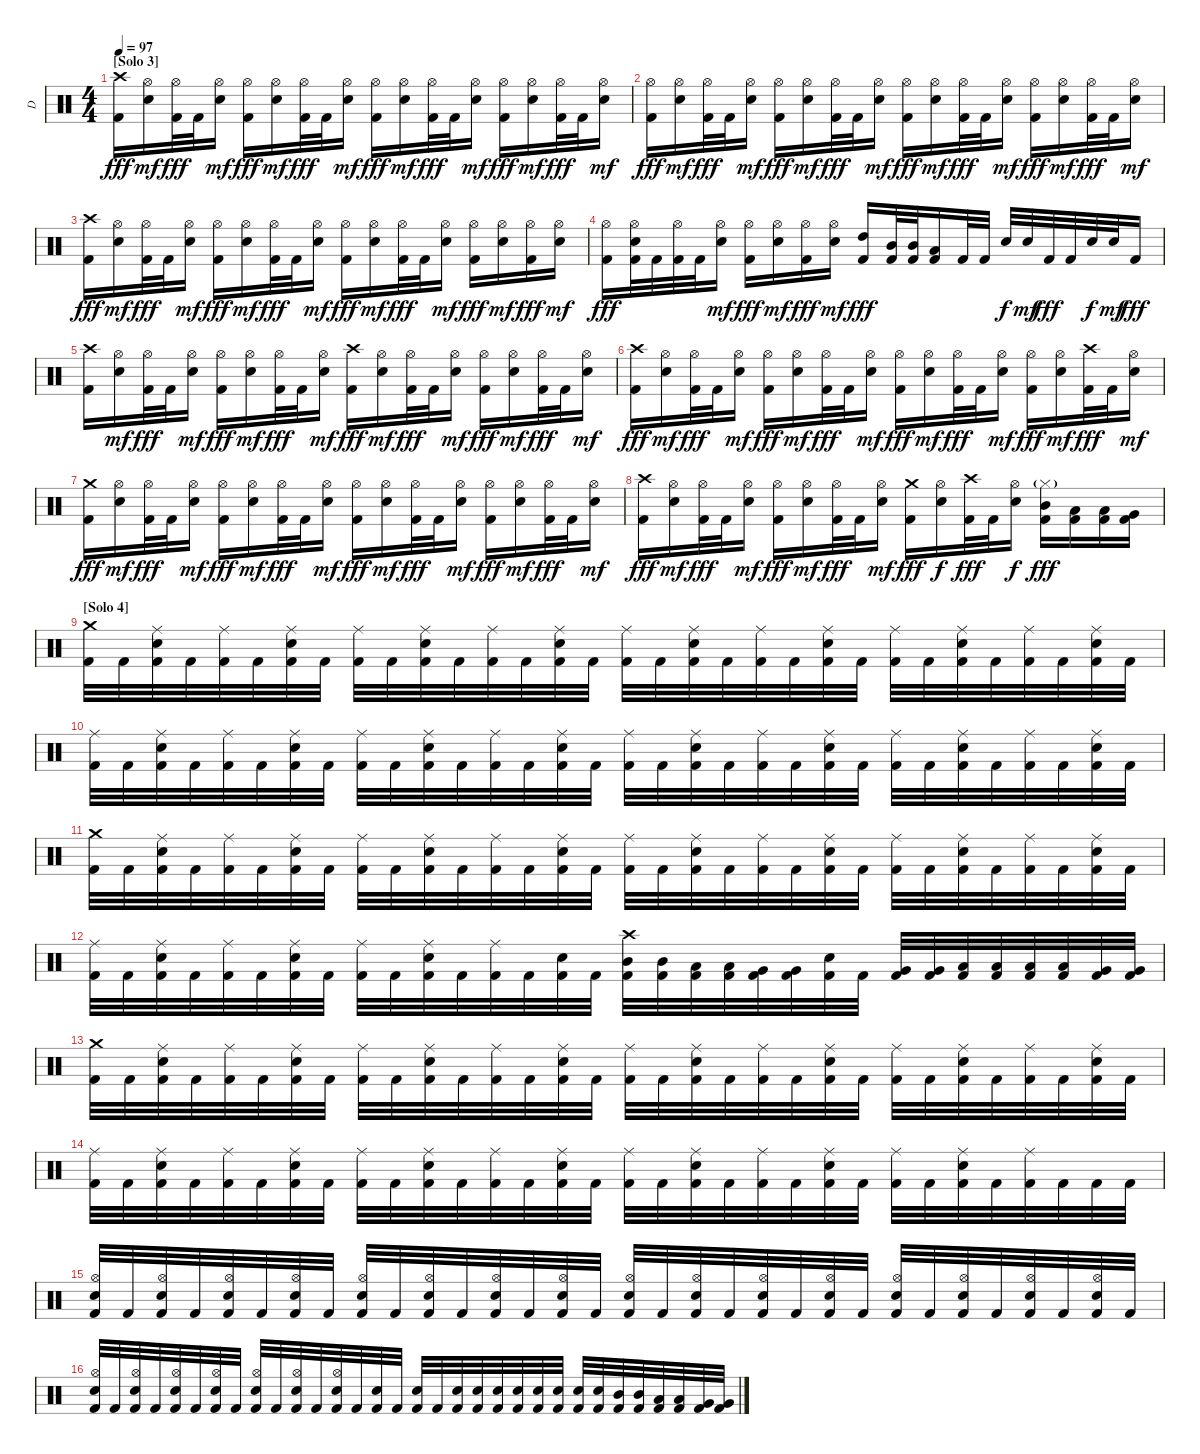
\track ("D" "D") {instrument percussion}
\staff {score}
\articulation defaults
\ts (4 4)
\section ("" "[Solo 3]")
\tempo 97
\clef neutral
\ks c
("Crash high (hit)" "Kick (hit) 2").16{dy fff} ("Hi-Hat (open)" "Snare (hit) 2").16{dy mf} ("Hi-Hat (open)" "Kick (hit) 2").32{dy fff} "Kick (hit) 2".32 ("Hi-Hat (open)" "Snare (hit) 2").16{dy mf} ("Hi-Hat (open)" "Kick (hit) 2").16{dy fff} ("Hi-Hat (open)" "Snare (hit) 2").16{dy mf} ("Hi-Hat (open)" "Kick (hit) 2").32{dy fff} "Kick (hit) 2".32 ("Hi-Hat (open)" "Snare (hit) 2").16{dy mf} ("Hi-Hat (open)" "Kick (hit) 2").16{dy fff} ("Hi-Hat (open)" "Snare (hit) 2").16{dy mf} ("Hi-Hat (open)" "Kick (hit) 2").32{dy fff} "Kick (hit) 2".32 ("Hi-Hat (open)" "Snare (hit) 2").16{dy mf} ("Hi-Hat (open)" "Kick (hit) 2").16{dy fff} ("Hi-Hat (open)" "Snare (hit) 2").16{dy mf} ("Hi-Hat (open)" "Kick (hit) 2").32{dy fff} "Kick (hit) 2".32 ("Hi-Hat (open)" "Snare (hit) 2").16{dy mf} |
("Hi-Hat (open)" "Kick (hit) 2").16{dy fff} ("Hi-Hat (open)" "Snare (hit) 2").16{dy mf} ("Hi-Hat (open)" "Kick (hit) 2").32{dy fff} "Kick (hit) 2".32 ("Hi-Hat (open)" "Snare (hit) 2").16{dy mf} ("Hi-Hat (open)" "Kick (hit) 2").16{dy fff} ("Hi-Hat (open)" "Snare (hit) 2").16{dy mf} ("Hi-Hat (open)" "Kick (hit) 2").32{dy fff} "Kick (hit) 2".32 ("Hi-Hat (open)" "Snare (hit) 2").16{dy mf} ("Hi-Hat (open)" "Kick (hit) 2").16{dy fff} ("Hi-Hat (open)" "Snare (hit) 2").16{dy mf} ("Hi-Hat (open)" "Kick (hit) 2").32{dy fff} "Kick (hit) 2".32 ("Hi-Hat (open)" "Snare (hit) 2").16{dy mf} ("Hi-Hat (open)" "Kick (hit) 2").16{dy fff} ("Hi-Hat (open)" "Snare (hit) 2").16{dy mf} ("Hi-Hat (open)" "Kick (hit) 2").32{dy fff} "Kick (hit) 2".32 ("Hi-Hat (open)" "Snare (hit) 2").16{dy mf} |
("Crash high (hit)" "Kick (hit) 2").16{dy fff} ("Hi-Hat (open)" "Snare (hit) 2").16{dy mf} ("Hi-Hat (open)" "Kick (hit) 2").32{dy fff} "Kick (hit) 2".32 ("Hi-Hat (open)" "Snare (hit) 2").16{dy mf} ("Hi-Hat (open)" "Kick (hit) 2").16{dy fff} ("Hi-Hat (open)" "Snare (hit) 2").16{dy mf} ("Hi-Hat (open)" "Kick (hit) 2").32{dy fff} "Kick (hit) 2".32 ("Hi-Hat (open)" "Snare (hit) 2").16{dy mf} ("Hi-Hat (open)" "Kick (hit) 2").16{dy fff} ("Hi-Hat (open)" "Snare (hit) 2").16{dy mf} ("Hi-Hat (open)" "Kick (hit) 2").32{dy fff} "Kick (hit) 2".32 ("Hi-Hat (open)" "Snare (hit) 2").16{dy mf} ("Hi-Hat (open)" "Kick (hit) 2").16{dy fff} ("Hi-Hat (open)" "Snare (hit) 2").16{dy mf} ("Hi-Hat (open)" "Kick (hit) 2").16{dy fff} ("Hi-Hat (open)" "Snare (hit) 2").16{dy mf} |
("Hi-Hat (open)" "Kick (hit) 2").16{dy fff} ("Hi-Hat (open)" "Snare (hit) 2" "Kick (hit) 2").32 "Kick (hit) 2".32 ("Hi-Hat (open)" "Kick (hit) 2").32 "Kick (hit) 2".32 ("Hi-Hat (open)" "Snare (hit) 2").16{dy mf} ("Hi-Hat (open)" "Kick (hit) 2").16{dy fff} ("Hi-Hat (open)" "Snare (hit) 2").16{dy mf} ("Hi-Hat (open)" "Kick (hit) 2").16{dy fff} ("Hi-Hat (open)" "Snare (hit) 2").16{dy mf} ("High Tom (hit)" "Kick (hit) 2").16{dy fff} ("Mid Tom (hit)" "Kick (hit) 2").32 ("Mid Tom (hit)" "Kick (hit) 2").32 ("Low Tom (hit)" "Kick (hit) 2").16 "Kick (hit) 2".32 "Kick (hit) 2".32 "Snare (hit) 2".32{dy f} "Snare (hit) 2".32{dy mf} "Kick (hit) 2".32{dy fff} "Kick (hit) 2".32 "Snare (hit) 2".32{dy f} "Snare (hit) 2".32{dy mf} "Kick (hit) 2".16{dy fff} |
("Crash high (hit)" "Kick (hit) 2").16 ("Hi-Hat (open)" "Snare (hit) 2").16{dy mf} ("Hi-Hat (open)" "Kick (hit) 2").32{dy fff} "Kick (hit) 2".32 ("Hi-Hat (open)" "Snare (hit) 2").16{dy mf} ("Hi-Hat (open)" "Kick (hit) 2").16{dy fff} ("Hi-Hat (open)" "Snare (hit) 2").16{dy mf} ("Hi-Hat (open)" "Kick (hit) 2").32{dy fff} "Kick (hit) 2".32 ("Hi-Hat (open)" "Snare (hit) 2").16{dy mf} ("Crash high (hit)" "Kick (hit) 2").16{dy fff} ("Hi-Hat (open)" "Snare (hit) 2").16{dy mf} ("Hi-Hat (open)" "Kick (hit) 2").32{dy fff} "Kick (hit) 2".32 ("Hi-Hat (open)" "Snare (hit) 2").16{dy mf} ("Hi-Hat (open)" "Kick (hit) 2").16{dy fff} ("Hi-Hat (open)" "Snare (hit) 2").16{dy mf} ("Hi-Hat (open)" "Kick (hit) 2").32{dy fff} "Kick (hit) 2".32 ("Hi-Hat (open)" "Snare (hit) 2").16{dy mf} |
("Crash high (hit)" "Kick (hit) 2").16{dy fff} ("Hi-Hat (open)" "Snare (hit) 2").16{dy mf} ("Hi-Hat (open)" "Kick (hit) 2").32{dy fff} "Kick (hit) 2".32 ("Hi-Hat (open)" "Snare (hit) 2").16{dy mf} ("Hi-Hat (open)" "Kick (hit) 2").16{dy fff} ("Hi-Hat (open)" "Snare (hit) 2").16{dy mf} ("Hi-Hat (open)" "Kick (hit) 2").32{dy fff} "Kick (hit) 2".32 ("Hi-Hat (open)" "Snare (hit) 2").16{dy mf} ("Hi-Hat (open)" "Kick (hit) 2").16{dy fff} ("Hi-Hat (open)" "Snare (hit) 2").16{dy mf} ("Hi-Hat (open)" "Kick (hit) 2").32{dy fff} "Kick (hit) 2".32 ("Hi-Hat (open)" "Snare (hit) 2").16{dy mf} ("Hi-Hat (open)" "Kick (hit) 2").16{dy fff} ("Hi-Hat (open)" "Snare (hit) 2").16{dy mf} ("Crash high (hit)" "Kick (hit) 2").32{dy fff} "Kick (hit) 2".32 ("Hi-Hat (open)" "Snare (hit) 2").16{dy mf} |
("Crash medium (hit)" "Kick (hit) 2").16{dy fff} ("Hi-Hat (open)" "Snare (hit) 2").16{dy mf} ("Hi-Hat (open)" "Kick (hit) 2").32{dy fff} "Kick (hit) 2".32 ("Hi-Hat (open)" "Snare (hit) 2").16{dy mf} ("Hi-Hat (open)" "Kick (hit) 2").16{dy fff} ("Hi-Hat (open)" "Snare (hit) 2").16{dy mf} ("Hi-Hat (open)" "Kick (hit) 2").32{dy fff} "Kick (hit) 2".32 ("Hi-Hat (open)" "Snare (hit) 2").16{dy mf} ("Hi-Hat (open)" "Kick (hit) 2").16{dy fff} ("Hi-Hat (open)" "Snare (hit) 2").16{dy mf} ("Hi-Hat (open)" "Kick (hit) 2").32{dy fff} "Kick (hit) 2".32 ("Hi-Hat (open)" "Snare (hit) 2").16{dy mf} ("Hi-Hat (open)" "Kick (hit) 2").16{dy fff} ("Hi-Hat (open)" "Snare (hit) 2").16{dy mf} ("Hi-Hat (open)" "Kick (hit) 2").32{dy fff} "Kick (hit) 2".32 ("Hi-Hat (open)" "Snare (hit) 2").16{dy mf} |
("Crash high (hit)" "Kick (hit) 2").16{dy fff} ("Hi-Hat (open)" "Snare (hit) 2").16{dy mf} ("Hi-Hat (open)" "Kick (hit) 2").32{dy fff} "Kick (hit) 2".32 ("Hi-Hat (open)" "Snare (hit) 2").16{dy mf} ("Hi-Hat (open)" "Kick (hit) 2").16{dy fff} ("Hi-Hat (open)" "Snare (hit) 2").16{dy mf} ("Hi-Hat (open)" "Kick (hit) 2").32{dy fff} "Kick (hit) 2".32 ("Hi-Hat (open)" "Snare (hit) 2").16{dy mf} ("Crash medium (hit)" "Kick (hit) 2").16{dy fff} ("Hi-Hat (open)" "Snare (hit) 2").16{dy f} ("Crash high (hit)" "Kick (hit) 2").32{dy fff} "Kick (hit) 2".32 ("Hi-Hat (open)" "Snare (hit) 2").16{dy f} ("Hi-Hat (closed)"{g} "Mid Tom (hit)" "Kick (hit) 2").16{dy fff} ("Low Tom (hit)" "Kick (hit) 2").16 ("Low Tom (hit)" "Kick (hit) 2").16 ("Very Low Tom (hit)" "Kick (hit) 2").16 |
\section ("" "[Solo 4]")
("Crash medium (hit)" "Kick (hit) 2").32 "Kick (hit) 2".32 ("Ride (middle)" "Snare (hit) 2" "Kick (hit) 2").32 "Kick (hit) 2".32 ("Ride (middle)" "Kick (hit) 2").32 "Kick (hit) 2".32 ("Ride (middle)" "Snare (hit) 2" "Kick (hit) 2").32 "Kick (hit) 2".32 ("Ride (middle)" "Kick (hit) 2").32 "Kick (hit) 2".32 ("Ride (middle)" "Snare (hit) 2" "Kick (hit) 2").32 "Kick (hit) 2".32 ("Ride (middle)" "Kick (hit) 2").32 "Kick (hit) 2".32 ("Ride (middle)" "Snare (hit) 2" "Kick (hit) 2").32 "Kick (hit) 2".32 ("Ride (middle)" "Kick (hit) 2").32 "Kick (hit) 2".32 ("Ride (middle)" "Snare (hit) 2" "Kick (hit) 2").32 "Kick (hit) 2".32 ("Ride (middle)" "Kick (hit) 2").32 "Kick (hit) 2".32 ("Ride (middle)" "Snare (hit) 2" "Kick (hit) 2").32 "Kick (hit) 2".32 ("Ride (middle)" "Kick (hit) 2").32 "Kick (hit) 2".32 ("Ride (middle)" "Snare (hit) 2" "Kick (hit) 2").32 "Kick (hit) 2".32 ("Ride (middle)" "Kick (hit) 2").32 "Kick (hit) 2".32 ("Ride (middle)" "Snare (hit) 2" "Kick (hit) 2").32 "Kick (hit) 2".32 |
("Ride (middle)" "Kick (hit) 2").32 "Kick (hit) 2".32 ("Ride (middle)" "Snare (hit) 2" "Kick (hit) 2").32 "Kick (hit) 2".32 ("Ride (middle)" "Kick (hit) 2").32 "Kick (hit) 2".32 ("Ride (middle)" "Snare (hit) 2" "Kick (hit) 2").32 "Kick (hit) 2".32 ("Ride (middle)" "Kick (hit) 2").32 "Kick (hit) 2".32 ("Ride (middle)" "Snare (hit) 2" "Kick (hit) 2").32 "Kick (hit) 2".32 ("Ride (middle)" "Kick (hit) 2").32 "Kick (hit) 2".32 ("Ride (middle)" "Snare (hit) 2" "Kick (hit) 2").32 "Kick (hit) 2".32 ("Ride (middle)" "Kick (hit) 2").32 "Kick (hit) 2".32 ("Ride (middle)" "Snare (hit) 2" "Kick (hit) 2").32 "Kick (hit) 2".32 ("Ride (middle)" "Kick (hit) 2").32 "Kick (hit) 2".32 ("Ride (middle)" "Snare (hit) 2" "Kick (hit) 2").32 "Kick (hit) 2".32 ("Ride (middle)" "Kick (hit) 2").32 "Kick (hit) 2".32 ("Ride (middle)" "Snare (hit) 2" "Kick (hit) 2").32 "Kick (hit) 2".32 ("Ride (middle)" "Kick (hit) 2").32 "Kick (hit) 2".32 ("Ride (middle)" "Snare (hit) 2" "Kick (hit) 2").32 "Kick (hit) 2".32 |
("Crash medium (hit)" "Kick (hit) 2").32 "Kick (hit) 2".32 ("Ride (middle)" "Snare (hit) 2" "Kick (hit) 2").32 "Kick (hit) 2".32 ("Ride (middle)" "Kick (hit) 2").32 "Kick (hit) 2".32 ("Ride (middle)" "Snare (hit) 2" "Kick (hit) 2").32 "Kick (hit) 2".32 ("Ride (middle)" "Kick (hit) 2").32 "Kick (hit) 2".32 ("Ride (middle)" "Snare (hit) 2" "Kick (hit) 2").32 "Kick (hit) 2".32 ("Ride (middle)" "Kick (hit) 2").32 "Kick (hit) 2".32 ("Ride (middle)" "Snare (hit) 2" "Kick (hit) 2").32 "Kick (hit) 2".32 ("Ride (middle)" "Kick (hit) 2").32 "Kick (hit) 2".32 ("Ride (middle)" "Snare (hit) 2" "Kick (hit) 2").32 "Kick (hit) 2".32 ("Ride (middle)" "Kick (hit) 2").32 "Kick (hit) 2".32 ("Ride (middle)" "Snare (hit) 2" "Kick (hit) 2").32 "Kick (hit) 2".32 ("Ride (middle)" "Kick (hit) 2").32 "Kick (hit) 2".32 ("Ride (middle)" "Snare (hit) 2" "Kick (hit) 2").32 "Kick (hit) 2".32 ("Ride (middle)" "Kick (hit) 2").32 "Kick (hit) 2".32 ("Ride (middle)" "Snare (hit) 2" "Kick (hit) 2").32 "Kick (hit) 2".32 |
("Ride (middle)" "Kick (hit) 2").32 "Kick (hit) 2".32 ("Ride (middle)" "Snare (hit) 2" "Kick (hit) 2").32 "Kick (hit) 2".32 ("Ride (middle)" "Kick (hit) 2").32 "Kick (hit) 2".32 ("Ride (middle)" "Snare (hit) 2" "Kick (hit) 2").32 "Kick (hit) 2".32 ("Ride (middle)" "Kick (hit) 2").32 "Kick (hit) 2".32 ("Ride (middle)" "Snare (hit) 2" "Kick (hit) 2").32 "Kick (hit) 2".32 ("Ride (middle)" "Kick (hit) 2").32 "Kick (hit) 2".32 ("Snare (hit) 2" "Kick (hit) 2").32 "Kick (hit) 2".32 ("Crash high (hit)" "Mid Tom (hit)" "Kick (hit) 2").32 ("Mid Tom (hit)" "Kick (hit) 2").32 ("Low Tom (hit)" "Kick (hit) 2").32 ("Low Tom (hit)" "Kick (hit) 2").32 ("Very Low Tom (hit)" "Kick (hit) 2").32 ("Very Low Tom (hit)" "Kick (hit) 2").32 ("Snare (hit) 2" "Kick (hit) 2").32 "Kick (hit) 2".32 ("Very Low Tom (hit)" "Kick (hit) 2").32 ("Very Low Tom (hit)" "Kick (hit) 2").32 ("Low Floor Tom (hit)" "Kick (hit) 2").32 ("Low Floor Tom (hit)" "Kick (hit) 2").32 ("Low Tom (hit)" "Kick (hit) 2").32 ("Low Tom (hit)" "Kick (hit) 2").32 ("Very Low Tom (hit)" "Kick (hit) 2").32 ("Very Low Tom (hit)" "Kick (hit) 2").32 |
("Crash medium (hit)" "Kick (hit) 2").32 "Kick (hit) 2".32 ("Ride (middle)" "Snare (hit) 2" "Kick (hit) 2").32 "Kick (hit) 2".32 ("Ride (middle)" "Kick (hit) 2").32 "Kick (hit) 2".32 ("Ride (middle)" "Snare (hit) 2" "Kick (hit) 2").32 "Kick (hit) 2".32 ("Ride (middle)" "Kick (hit) 2").32 "Kick (hit) 2".32 ("Ride (middle)" "Snare (hit) 2" "Kick (hit) 2").32 "Kick (hit) 2".32 ("Ride (middle)" "Kick (hit) 2").32 "Kick (hit) 2".32 ("Ride (middle)" "Snare (hit) 2" "Kick (hit) 2").32 "Kick (hit) 2".32 ("Ride (middle)" "Kick (hit) 2").32 "Kick (hit) 2".32 ("Ride (middle)" "Snare (hit) 2" "Kick (hit) 2").32 "Kick (hit) 2".32 ("Ride (middle)" "Kick (hit) 2").32 "Kick (hit) 2".32 ("Ride (middle)" "Snare (hit) 2" "Kick (hit) 2").32 "Kick (hit) 2".32 ("Ride (middle)" "Kick (hit) 2").32 "Kick (hit) 2".32 ("Ride (middle)" "Snare (hit) 2" "Kick (hit) 2").32 "Kick (hit) 2".32 ("Ride (middle)" "Kick (hit) 2").32 "Kick (hit) 2".32 ("Ride (middle)" "Snare (hit) 2" "Kick (hit) 2").32 "Kick (hit) 2".32 |
("Ride (middle)" "Kick (hit) 2").32 "Kick (hit) 2".32 ("Ride (middle)" "Snare (hit) 2" "Kick (hit) 2").32 "Kick (hit) 2".32 ("Ride (middle)" "Kick (hit) 2").32 "Kick (hit) 2".32 ("Ride (middle)" "Snare (hit) 2" "Kick (hit) 2").32 "Kick (hit) 2".32 ("Ride (middle)" "Kick (hit) 2").32 "Kick (hit) 2".32 ("Ride (middle)" "Snare (hit) 2" "Kick (hit) 2").32 "Kick (hit) 2".32 ("Ride (middle)" "Kick (hit) 2").32 "Kick (hit) 2".32 ("Ride (middle)" "Snare (hit) 2" "Kick (hit) 2").32 "Kick (hit) 2".32 ("Ride (middle)" "Kick (hit) 2").32 "Kick (hit) 2".32 ("Ride (middle)" "Snare (hit) 2" "Kick (hit) 2").32 "Kick (hit) 2".32 ("Ride (middle)" "Kick (hit) 2").32 "Kick (hit) 2".32 ("Ride (middle)" "Snare (hit) 2" "Kick (hit) 2").32 "Kick (hit) 2".32 ("Ride (middle)" "Kick (hit) 2").32 "Kick (hit) 2".32 ("Ride (middle)" "Snare (hit) 2" "Kick (hit) 2").32 "Kick (hit) 2".32 ("Ride (middle)" "Kick (hit) 2").32 "Kick (hit) 2".32 "Kick (hit) 2".32 "Kick (hit) 2".32 |
("Hi-Hat (open)" "Snare (hit) 2" "Kick (hit) 2").32 "Kick (hit) 2".32 ("Hi-Hat (open)" "Snare (hit) 2" "Kick (hit) 2").32 "Kick (hit) 2".32 ("Hi-Hat (open)" "Snare (hit) 2" "Kick (hit) 2").32 "Kick (hit) 2".32 ("Hi-Hat (open)" "Snare (hit) 2" "Kick (hit) 2").32 "Kick (hit) 2".32 ("Hi-Hat (open)" "Snare (hit) 2" "Kick (hit) 2").32 "Kick (hit) 2".32 ("Hi-Hat (open)" "Snare (hit) 2" "Kick (hit) 2").32 "Kick (hit) 2".32 ("Hi-Hat (open)" "Snare (hit) 2" "Kick (hit) 2").32 "Kick (hit) 2".32 ("Hi-Hat (open)" "Snare (hit) 2" "Kick (hit) 2").32 "Kick (hit) 2".32 ("Hi-Hat (open)" "Snare (hit) 2" "Kick (hit) 2").32 "Kick (hit) 2".32 ("Hi-Hat (open)" "Snare (hit) 2" "Kick (hit) 2").32 "Kick (hit) 2".32 ("Hi-Hat (open)" "Snare (hit) 2" "Kick (hit) 2").32 "Kick (hit) 2".32 ("Hi-Hat (open)" "Snare (hit) 2" "Kick (hit) 2").32 "Kick (hit) 2".32 ("Hi-Hat (open)" "Snare (hit) 2" "Kick (hit) 2").32 "Kick (hit) 2".32 ("Hi-Hat (open)" "Snare (hit) 2" "Kick (hit) 2").32 "Kick (hit) 2".32 ("Hi-Hat (open)" "Snare (hit) 2" "Kick (hit) 2").32 "Kick (hit) 2".32 ("Hi-Hat (open)" "Snare (hit) 2" "Kick (hit) 2").32 "Kick (hit) 2".32 |
("Hi-Hat (open)" "Snare (hit) 2" "Kick (hit) 2").32 "Kick (hit) 2".32 ("Hi-Hat (open)" "Snare (hit) 2" "Kick (hit) 2").32 "Kick (hit) 2".32 ("Hi-Hat (open)" "Snare (hit) 2" "Kick (hit) 2").32 "Kick (hit) 2".32 ("Hi-Hat (open)" "Snare (hit) 2" "Kick (hit) 2").32 "Kick (hit) 2".32 ("Hi-Hat (open)" "Snare (hit) 2" "Kick (hit) 2").32 "Kick (hit) 2".32 ("Hi-Hat (open)" "Snare (hit) 2" "Kick (hit) 2").32 "Kick (hit) 2".32 ("Hi-Hat (open)" "Snare (hit) 2" "Kick (hit) 2").32 "Kick (hit) 2".32 ("Snare (hit) 2" "Kick (hit) 2").32 "Kick (hit) 2".32 ("Snare (hit) 2" "Kick (hit) 2").32 "Kick (hit) 2".32 ("Snare (hit) 2" "Kick (hit) 2").32 ("Snare (hit) 2" "Kick (hit) 2").32 ("Snare (hit) 2" "Kick (hit) 2").32 ("Snare (hit) 2" "Kick (hit) 2").32 ("Snare (hit) 2" "Kick (hit) 2").32 ("Snare (hit) 2" "Kick (hit) 2").32 ("Snare (hit) 2" "Kick (hit) 2").32 ("Snare (hit) 2" "Kick (hit) 2").32 ("Mid Tom (hit)" "Kick (hit) 2").32 ("Mid Tom (hit)" "Kick (hit) 2").32 ("Low Tom (hit)" "Kick (hit) 2").32 ("Low Tom (hit)" "Kick (hit) 2").32 ("Very Low Tom (hit)" "Kick (hit) 2").32 ("Very Low Tom (hit)" "Kick (hit) 2").32
